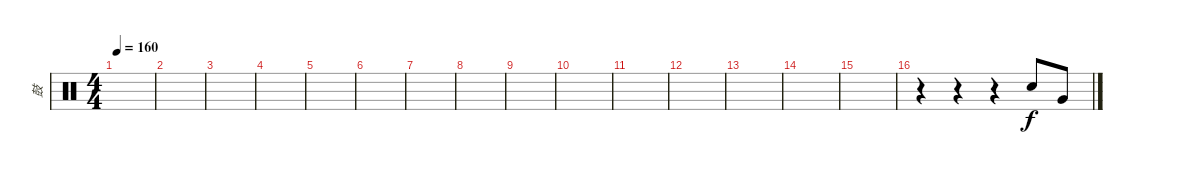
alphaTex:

\track ("鼓" "鼓") {instrument percussion}
\staff {score}
\articulation defaults
\ts (4 4)
\tempo 160
\clef neutral
\ks c
|
|
|
|
|
|
|
|
|
|
|
|
|
|
|
r.4 r.4 r.4 "Electric Snare (hit)".8 "Very Low Tom (hit)".8
